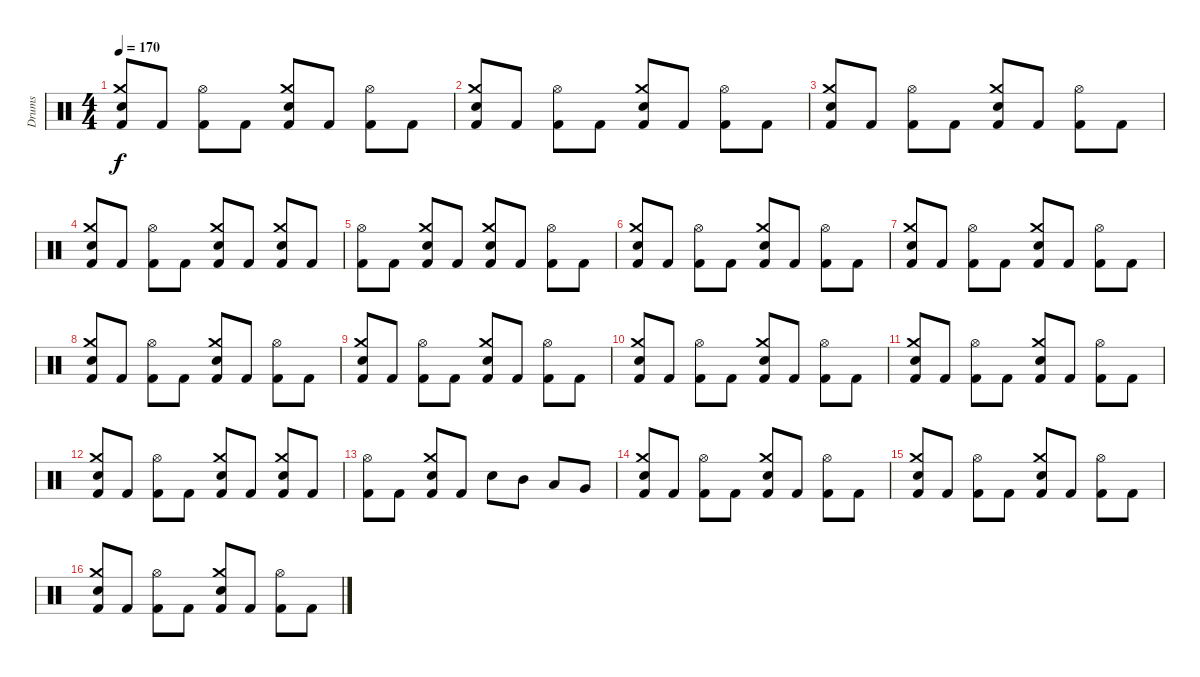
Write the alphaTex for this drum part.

\track ("Drums" "Drums") {instrument percussion}
\staff {score}
\articulation defaults
\ts (4 4)
\tempo 170
\clef neutral
\ks c
("Snare (hit) 2" "Crash medium (hit)" "Kick (hit) 2").8{dy f} "Kick (hit) 2".8 ("Hi-Hat (open)" "Kick (hit) 2").8 "Kick (hit) 2".8 ("Snare (hit) 2" "Crash medium (hit)" "Kick (hit) 2").8 "Kick (hit) 2".8 ("Hi-Hat (open)" "Kick (hit) 2").8 "Kick (hit) 2".8 |
("Snare (hit) 2" "Crash medium (hit)" "Kick (hit) 2").8 "Kick (hit) 2".8 ("Hi-Hat (open)" "Kick (hit) 2").8 "Kick (hit) 2".8 ("Snare (hit) 2" "Crash medium (hit)" "Kick (hit) 2").8 "Kick (hit) 2".8 ("Hi-Hat (open)" "Kick (hit) 2").8 "Kick (hit) 2".8 |
("Snare (hit) 2" "Crash medium (hit)" "Kick (hit) 2").8 "Kick (hit) 2".8 ("Hi-Hat (open)" "Kick (hit) 2").8 "Kick (hit) 2".8 ("Snare (hit) 2" "Crash medium (hit)" "Kick (hit) 2").8 "Kick (hit) 2".8 ("Hi-Hat (open)" "Kick (hit) 2").8 "Kick (hit) 2".8 |
("Snare (hit) 2" "Crash medium (hit)" "Kick (hit) 2").8 "Kick (hit) 2".8 ("Hi-Hat (open)" "Kick (hit) 2").8 "Kick (hit) 2".8 ("Snare (hit) 2" "Crash medium (hit)" "Kick (hit) 2").8 "Kick (hit) 2".8 ("Snare (hit) 2" "Crash medium (hit)" "Kick (hit) 2").8 "Kick (hit) 2".8 |
("Hi-Hat (open)" "Kick (hit) 2").8 "Kick (hit) 2".8 ("Snare (hit) 2" "Crash medium (hit)" "Kick (hit) 2").8 "Kick (hit) 2".8 ("Snare (hit) 2" "Crash medium (hit)" "Kick (hit) 2").8 "Kick (hit) 2".8 ("Hi-Hat (open)" "Kick (hit) 2").8 "Kick (hit) 2".8 |
("Snare (hit) 2" "Crash medium (hit)" "Kick (hit) 2").8 "Kick (hit) 2".8 ("Hi-Hat (open)" "Kick (hit) 2").8 "Kick (hit) 2".8 ("Snare (hit) 2" "Crash medium (hit)" "Kick (hit) 2").8 "Kick (hit) 2".8 ("Hi-Hat (open)" "Kick (hit) 2").8 "Kick (hit) 2".8 |
("Snare (hit) 2" "Crash medium (hit)" "Kick (hit) 2").8 "Kick (hit) 2".8 ("Hi-Hat (open)" "Kick (hit) 2").8 "Kick (hit) 2".8 ("Snare (hit) 2" "Crash medium (hit)" "Kick (hit) 2").8 "Kick (hit) 2".8 ("Hi-Hat (open)" "Kick (hit) 2").8 "Kick (hit) 2".8 |
("Snare (hit) 2" "Crash medium (hit)" "Kick (hit) 2").8 "Kick (hit) 2".8 ("Hi-Hat (open)" "Kick (hit) 2").8 "Kick (hit) 2".8 ("Snare (hit) 2" "Crash medium (hit)" "Kick (hit) 2").8 "Kick (hit) 2".8 ("Hi-Hat (open)" "Kick (hit) 2").8 "Kick (hit) 2".8 |
("Snare (hit) 2" "Crash medium (hit)" "Kick (hit) 2").8 "Kick (hit) 2".8 ("Hi-Hat (open)" "Kick (hit) 2").8 "Kick (hit) 2".8 ("Snare (hit) 2" "Crash medium (hit)" "Kick (hit) 2").8 "Kick (hit) 2".8 ("Hi-Hat (open)" "Kick (hit) 2").8 "Kick (hit) 2".8 |
("Snare (hit) 2" "Crash medium (hit)" "Kick (hit) 2").8 "Kick (hit) 2".8 ("Hi-Hat (open)" "Kick (hit) 2").8 "Kick (hit) 2".8 ("Snare (hit) 2" "Crash medium (hit)" "Kick (hit) 2").8 "Kick (hit) 2".8 ("Hi-Hat (open)" "Kick (hit) 2").8 "Kick (hit) 2".8 |
("Snare (hit) 2" "Crash medium (hit)" "Kick (hit) 2").8 "Kick (hit) 2".8 ("Hi-Hat (open)" "Kick (hit) 2").8 "Kick (hit) 2".8 ("Snare (hit) 2" "Crash medium (hit)" "Kick (hit) 2").8 "Kick (hit) 2".8 ("Hi-Hat (open)" "Kick (hit) 2").8 "Kick (hit) 2".8 |
("Snare (hit) 2" "Crash medium (hit)" "Kick (hit) 2").8 "Kick (hit) 2".8 ("Hi-Hat (open)" "Kick (hit) 2").8 "Kick (hit) 2".8 ("Snare (hit) 2" "Crash medium (hit)" "Kick (hit) 2").8 "Kick (hit) 2".8 ("Snare (hit) 2" "Crash medium (hit)" "Kick (hit) 2").8 "Kick (hit) 2".8 |
("Hi-Hat (open)" "Kick (hit) 2").8 "Kick (hit) 2".8 ("Snare (hit) 2" "Crash medium (hit)" "Kick (hit) 2").8 "Kick (hit) 2".8 "Snare (hit) 2".8 "Mid Tom (hit)".8 "Low Tom (hit)".8 "Very Low Tom (hit)".8 |
("Snare (hit) 2" "Crash medium (hit)" "Kick (hit) 2").8 "Kick (hit) 2".8 ("Hi-Hat (open)" "Kick (hit) 2").8 "Kick (hit) 2".8 ("Snare (hit) 2" "Crash medium (hit)" "Kick (hit) 2").8 "Kick (hit) 2".8 ("Hi-Hat (open)" "Kick (hit) 2").8 "Kick (hit) 2".8 |
("Snare (hit) 2" "Crash medium (hit)" "Kick (hit) 2").8 "Kick (hit) 2".8 ("Hi-Hat (open)" "Kick (hit) 2").8 "Kick (hit) 2".8 ("Snare (hit) 2" "Crash medium (hit)" "Kick (hit) 2").8 "Kick (hit) 2".8 ("Hi-Hat (open)" "Kick (hit) 2").8 "Kick (hit) 2".8 |
("Snare (hit) 2" "Crash medium (hit)" "Kick (hit) 2").8 "Kick (hit) 2".8 ("Hi-Hat (open)" "Kick (hit) 2").8 "Kick (hit) 2".8 ("Snare (hit) 2" "Crash medium (hit)" "Kick (hit) 2").8 "Kick (hit) 2".8 ("Hi-Hat (open)" "Kick (hit) 2").8 "Kick (hit) 2".8
